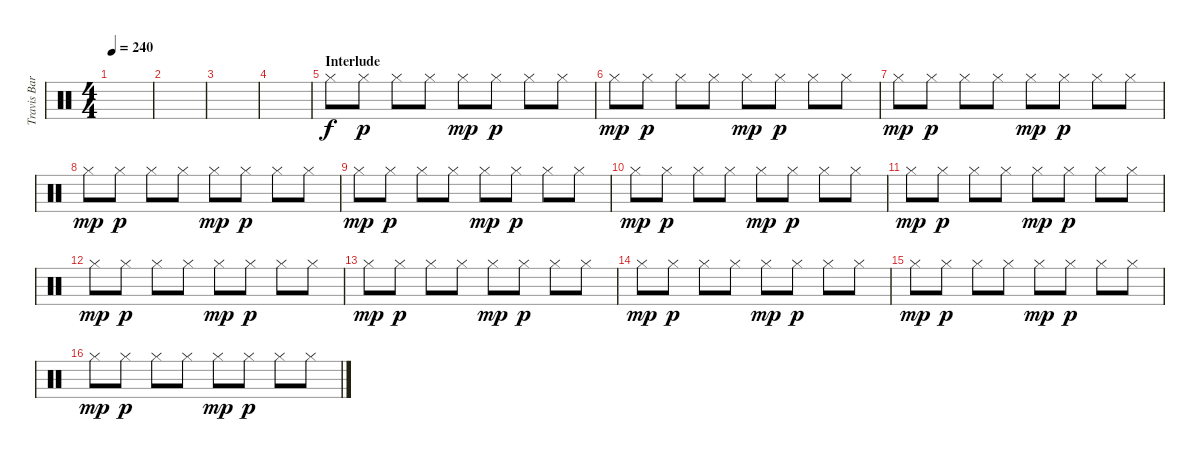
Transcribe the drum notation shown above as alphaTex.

\track ("Travis Barker - Drums 2" "Travis Bar") {instrument percussion}
\staff {score}
\articulation defaults
\ts (4 4)
\tempo 240
\clef neutral
\ks c
|
|
|
|
\section ("" "Interlude")
"Hi-Hat (closed)".8 "Hi-Hat (closed)".8{dy p} "Hi-Hat (closed)".8 "Hi-Hat (closed)".8 "Hi-Hat (closed)".8{dy mp} "Hi-Hat (closed)".8{dy p} "Hi-Hat (closed)".8 "Hi-Hat (closed)".8 |
"Hi-Hat (closed)".8{dy mp} "Hi-Hat (closed)".8{dy p} "Hi-Hat (closed)".8 "Hi-Hat (closed)".8 "Hi-Hat (closed)".8{dy mp} "Hi-Hat (closed)".8{dy p} "Hi-Hat (closed)".8 "Hi-Hat (closed)".8 |
"Hi-Hat (closed)".8{dy mp} "Hi-Hat (closed)".8{dy p} "Hi-Hat (closed)".8 "Hi-Hat (closed)".8 "Hi-Hat (closed)".8{dy mp} "Hi-Hat (closed)".8{dy p} "Hi-Hat (closed)".8 "Hi-Hat (closed)".8 |
"Hi-Hat (closed)".8{dy mp} "Hi-Hat (closed)".8{dy p} "Hi-Hat (closed)".8 "Hi-Hat (closed)".8 "Hi-Hat (closed)".8{dy mp} "Hi-Hat (closed)".8{dy p} "Hi-Hat (closed)".8 "Hi-Hat (closed)".8 |
"Hi-Hat (closed)".8{dy mp} "Hi-Hat (closed)".8{dy p} "Hi-Hat (closed)".8 "Hi-Hat (closed)".8 "Hi-Hat (closed)".8{dy mp} "Hi-Hat (closed)".8{dy p} "Hi-Hat (closed)".8 "Hi-Hat (closed)".8 |
"Hi-Hat (closed)".8{dy mp} "Hi-Hat (closed)".8{dy p} "Hi-Hat (closed)".8 "Hi-Hat (closed)".8 "Hi-Hat (closed)".8{dy mp} "Hi-Hat (closed)".8{dy p} "Hi-Hat (closed)".8 "Hi-Hat (closed)".8 |
"Hi-Hat (closed)".8{dy mp} "Hi-Hat (closed)".8{dy p} "Hi-Hat (closed)".8 "Hi-Hat (closed)".8 "Hi-Hat (closed)".8{dy mp} "Hi-Hat (closed)".8{dy p} "Hi-Hat (closed)".8 "Hi-Hat (closed)".8 |
"Hi-Hat (closed)".8{dy mp} "Hi-Hat (closed)".8{dy p} "Hi-Hat (closed)".8 "Hi-Hat (closed)".8 "Hi-Hat (closed)".8{dy mp} "Hi-Hat (closed)".8{dy p} "Hi-Hat (closed)".8 "Hi-Hat (closed)".8 |
"Hi-Hat (closed)".8{dy mp} "Hi-Hat (closed)".8{dy p} "Hi-Hat (closed)".8 "Hi-Hat (closed)".8 "Hi-Hat (closed)".8{dy mp} "Hi-Hat (closed)".8{dy p} "Hi-Hat (closed)".8 "Hi-Hat (closed)".8 |
"Hi-Hat (closed)".8{dy mp} "Hi-Hat (closed)".8{dy p} "Hi-Hat (closed)".8 "Hi-Hat (closed)".8 "Hi-Hat (closed)".8{dy mp} "Hi-Hat (closed)".8{dy p} "Hi-Hat (closed)".8 "Hi-Hat (closed)".8 |
"Hi-Hat (closed)".8{dy mp} "Hi-Hat (closed)".8{dy p} "Hi-Hat (closed)".8 "Hi-Hat (closed)".8 "Hi-Hat (closed)".8{dy mp} "Hi-Hat (closed)".8{dy p} "Hi-Hat (closed)".8 "Hi-Hat (closed)".8 |
"Hi-Hat (closed)".8{dy mp} "Hi-Hat (closed)".8{dy p} "Hi-Hat (closed)".8 "Hi-Hat (closed)".8 "Hi-Hat (closed)".8{dy mp} "Hi-Hat (closed)".8{dy p} "Hi-Hat (closed)".8 "Hi-Hat (closed)".8
